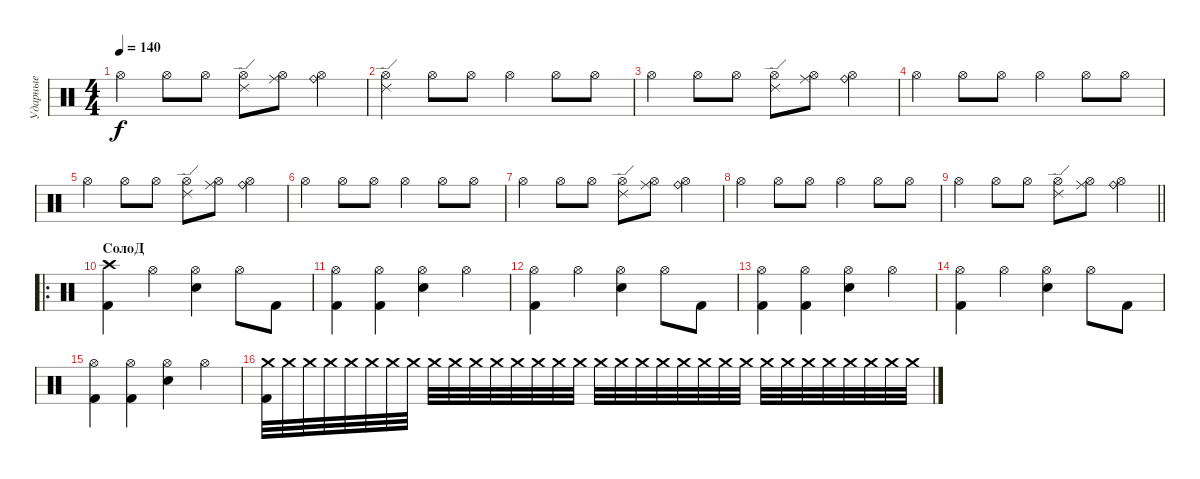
\track ("Ударные" "Ударные") {instrument percussion}
\staff {score}
\articulation defaults
\ts (4 4)
\tempo 140
\clef neutral
\ks c "Hi-Hat (open)".4{dy f} "Hi-Hat (open)".8 "Hi-Hat (open)".8
("Hi-Hat (open)" "Ride (edge) 2").8 ("Hi-Hat (open)" "Ride (middle)").8 ("Hi-Hat (open)" "Ride (bell)").4 |
("Hi-Hat (open)" "Ride (edge) 2").4 "Hi-Hat (open)".8 "Hi-Hat (open)".8 "Hi-Hat (open)".4 "Hi-Hat (open)".8 "Hi-Hat (open)".8 |
"Hi-Hat (open)".4 "Hi-Hat (open)".8 "Hi-Hat (open)".8 ("Hi-Hat (open)" "Ride (edge) 2").8 ("Hi-Hat (open)" "Ride (middle)").8 ("Hi-Hat (open)" "Ride (bell)").4 |
"Hi-Hat (open)".4 "Hi-Hat (open)".8 "Hi-Hat (open)".8 "Hi-Hat (open)".4 "Hi-Hat (open)".8 "Hi-Hat (open)".8 |
"Hi-Hat (open)".4 "Hi-Hat (open)".8 "Hi-Hat (open)".8 ("Hi-Hat (open)" "Ride (edge) 2").8 ("Hi-Hat (open)" "Ride (middle)").8 ("Hi-Hat (open)" "Ride (bell)").4 |
"Hi-Hat (open)".4 "Hi-Hat (open)".8 "Hi-Hat (open)".8 "Hi-Hat (open)".4 "Hi-Hat (open)".8 "Hi-Hat (open)".8 |
"Hi-Hat (open)".4 "Hi-Hat (open)".8 "Hi-Hat (open)".8 ("Hi-Hat (open)" "Ride (edge) 2").8 ("Hi-Hat (open)" "Ride (middle)").8 ("Hi-Hat (open)" "Ride (bell)").4 |
"Hi-Hat (open)".4 "Hi-Hat (open)".8 "Hi-Hat (open)".8 "Hi-Hat (open)".4 "Hi-Hat (open)".8 "Hi-Hat (open)".8 |
\barLineRight lightlight "Hi-Hat (open)".4 "Hi-Hat (open)".8 "Hi-Hat (open)".8
("Hi-Hat (open)" "Ride (edge) 2").8 ("Hi-Hat (open)" "Ride (middle)").8 ("Hi-Hat (open)" "Ride (bell)").4 |
\ro
\section ("" "СолоД")
("Kick (hit) 2" "Crash high (hit)").4{volume 16} "Hi-Hat (open)".4 ("Snare (hit) 2" "Hi-Hat (open)").4 "Hi-Hat (open)".8 "Kick (hit) 2".8 |
("Kick (hit) 2" "Hi-Hat (open)").4 ("Kick (hit) 2" "Hi-Hat (open)").4 ("Snare (hit) 2" "Hi-Hat (open)").4 "Hi-Hat (open)".4 |
("Kick (hit) 2" "Hi-Hat (open)").4 "Hi-Hat (open)".4 ("Snare (hit) 2" "Hi-Hat (open)").4 "Hi-Hat (open)".8 "Kick (hit) 2".8 |
("Kick (hit) 2" "Hi-Hat (open)").4 ("Kick (hit) 2" "Hi-Hat (open)").4 ("Snare (hit) 2" "Hi-Hat (open)").4 "Hi-Hat (open)".4 |
("Hi-Hat (open)" "Kick (hit) 2").4 "Hi-Hat (open)".4 ("Snare (hit) 2" "Hi-Hat (open)").4 "Hi-Hat (open)".8 "Kick (hit) 2".8 |
("Kick (hit) 2" "Hi-Hat (open)").4 ("Kick (hit) 2" "Hi-Hat (open)").4 ("Snare (hit) 2" "Hi-Hat (open)").4 "Hi-Hat (open)".4 |
("Crash medium (hit)" "Kick (hit) 2").32{volume 1} "Crash medium (hit)".32 "Crash medium (hit)".32 "Crash medium (hit)".32{volume 3} "Crash medium (hit)".32 "Crash medium (hit)".32 "Crash medium (hit)".32{volume 4} "Crash medium (hit)".32 "Crash medium (hit)".32 "Crash medium (hit)".32{volume 5} "Crash medium (hit)".32 "Crash medium (hit)".32 "Crash medium (hit)".32{volume 6} "Crash medium (hit)".32 "Crash medium (hit)".32 "Crash medium (hit)".32{volume 7} "Crash medium (hit)".32 "Crash medium (hit)".32 "Crash medium (hit)".32 "Crash medium (hit)".32{volume 7} "Crash medium (hit)".32 "Crash medium (hit)".32 "Crash medium (hit)".32 "Crash medium (hit)".32{volume 8} "Crash medium (hit)".32 "Crash medium (hit)".32 "Crash medium (hit)".32 "Crash medium (hit)".32{volume 9} "Crash medium (hit)".32 "Crash medium (hit)".32 "Crash medium (hit)".32 "Crash medium (hit)".32{volume 9}
